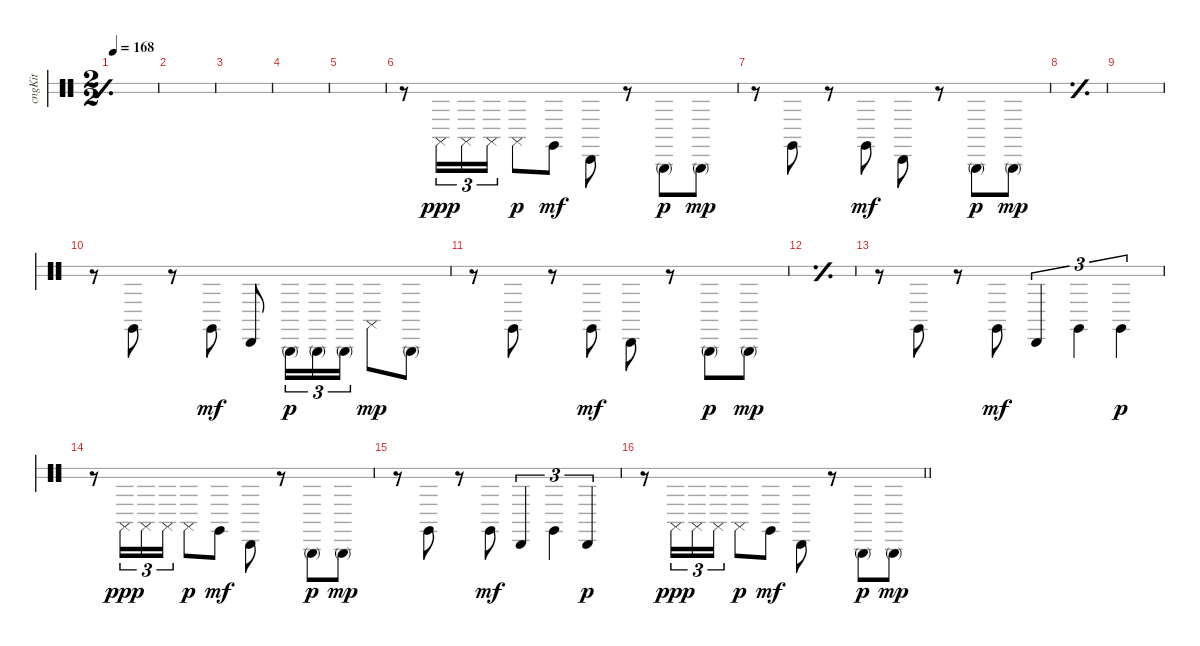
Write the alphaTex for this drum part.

\bracketExtendMode groupsimilarinstruments
\multiTrackTrackNamePolicy hidden
\otherSystemsTrackNameOrientation horizontal
\track ("Congas" "cngKit") {instrument percussion}
\staff {score 2}
\articulation defaults
\ts (2 2)
\tempo 168
\clef neutral
\simile simple
\ks c
|
|
|
|
|
r.8{beam Down} "Conga high (slap)".16{tu (3 2) dy ppp beam Down} "Conga high (slap)".16{tu (3 2) beam Down} "Conga high (slap)".16{tu (3 2) beam Down} "Conga high (slap)".8{dy p beam Down} "Conga high (hit)".8{dy mf beam Down} "Conga low (hit)".8{beam Down} r.8{beam Down} "Conga high (mute)".8{dy p beam Down} "Conga high (mute)".8{dy mp beam Down} |
r.8{beam Down} "Conga high (hit)".8{beam Down} r.8{beam Down} "Conga high (hit)".8{dy mf beam Down} "Conga low (hit)".8{beam Down} r.8{beam Down} "Conga high (mute)".8{dy p beam Down} "Conga high (mute)".8{dy mp beam Down} |
\simile simple
|
|
\simile none
r.8{beam Down} "Conga high (hit)".8{beam Down} r.8{beam Down} "Conga high (hit)".8{dy mf beam Down} "Conga low (hit)".8{beam Up} "Conga high (mute)".16{tu (3 2) dy p beam Down} "Conga high (mute)".16{tu (3 2) beam Down} "Conga high (mute)".16{tu (3 2) beam Down} "Conga high (slap)".8{dy mp beam Down} "Conga high (mute)".8{beam Down} |
r.8{beam Down} "Conga high (hit)".8{beam Down} r.8{beam Down} "Conga high (hit)".8{dy mf beam Down} "Conga low (hit)".8{beam Down} r.8{beam Down} "Conga high (mute)".8{dy p beam Down} "Conga high (mute)".8{dy mp beam Down} |
\simile simple
|
\simile none
r.8{beam Down} "Conga high (hit)".8{beam Down} r.8{beam Down} "Conga high (hit)".8{dy mf beam Down} "Conga low (hit)".4{tu (3 2) beam Up} "Conga high (hit)".4{tu (3 2) beam Down} "Conga high (hit)".4{tu (3 2) dy p beam Down} |
r.8{beam Down} "Conga high (slap)".16{tu (3 2) dy ppp beam Down} "Conga high (slap)".16{tu (3 2) beam Down} "Conga high (slap)".16{tu (3 2) beam Down} "Conga high (slap)".8{dy p beam Down} "Conga high (hit)".8{dy mf beam Down} "Conga low (hit)".8{beam Down} r.8{beam Down} "Conga high (mute)".8{dy p beam Down} "Conga high (mute)".8{dy mp beam Down} |
r.8{beam Down} "Conga high (hit)".8{beam Down} r.8{beam Down} "Conga high (hit)".8{dy mf beam Down} "Conga low (hit)".4{tu (3 2) beam Up} "Conga high (hit)".4{tu (3 2) beam Down} "Conga low (hit)".4{tu (3 2) dy p beam Up} |
\barLineRight lightlight
r.8{beam Down} "Conga high (slap)".16{tu (3 2) dy ppp beam Down} "Conga high (slap)".16{tu (3 2) beam Down} "Conga high (slap)".16{tu (3 2) beam Down} "Conga high (slap)".8{dy p beam Down} "Conga high (hit)".8{dy mf beam Down} "Conga low (hit)".8{beam Down} r.8{beam Down} "Conga high (mute)".8{dy p beam Down} "Conga high (mute)".8{dy mp beam Down}
